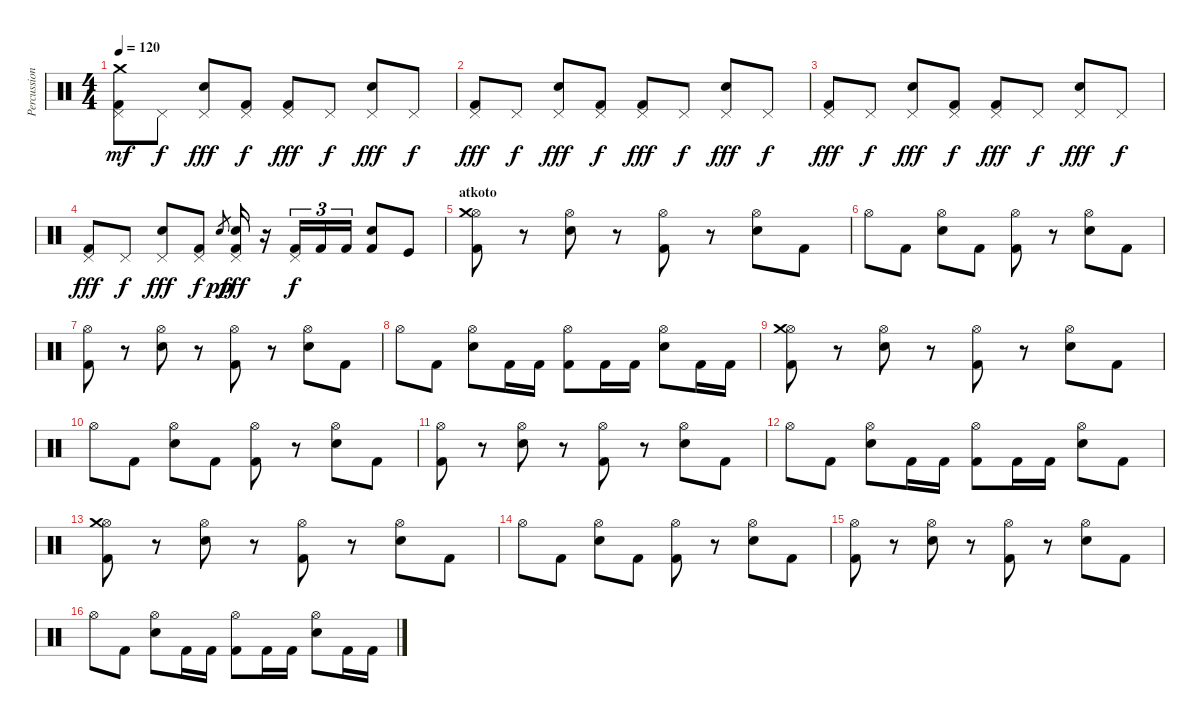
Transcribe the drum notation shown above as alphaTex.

\track ("Percussion" "Percussion") {instrument percussion}
\staff {score}
\articulation defaults
\ts (4 4)
\tempo 120
\clef neutral
\ks c
("Pedal Hi-Hat (hit)" "Kick (hit) 2" "Crash medium (hit)").8{dy mf} "Pedal Hi-Hat (hit)".8{dy f} ("Pedal Hi-Hat (hit)" "Snare (hit) 2").8{dy fff} ("Pedal Hi-Hat (hit)" "Kick (hit) 2").8{dy f} ("Pedal Hi-Hat (hit)" "Kick (hit) 2").8{dy fff} "Pedal Hi-Hat (hit)".8{dy f} ("Pedal Hi-Hat (hit)" "Snare (hit) 2").8{dy fff} "Pedal Hi-Hat (hit)".8{dy f} |
("Pedal Hi-Hat (hit)" "Kick (hit) 2").8{dy fff} "Pedal Hi-Hat (hit)".8{dy f} ("Pedal Hi-Hat (hit)" "Snare (hit) 2").8{dy fff} ("Pedal Hi-Hat (hit)" "Kick (hit) 2").8{dy f} ("Pedal Hi-Hat (hit)" "Kick (hit) 2").8{dy fff} "Pedal Hi-Hat (hit)".8{dy f} ("Pedal Hi-Hat (hit)" "Snare (hit) 2").8{dy fff} "Pedal Hi-Hat (hit)".8{dy f} |
("Pedal Hi-Hat (hit)" "Kick (hit) 2").8{dy fff} "Pedal Hi-Hat (hit)".8{dy f} ("Pedal Hi-Hat (hit)" "Snare (hit) 2").8{dy fff} ("Pedal Hi-Hat (hit)" "Kick (hit) 2").8{dy f} ("Pedal Hi-Hat (hit)" "Kick (hit) 2").8{dy fff} "Pedal Hi-Hat (hit)".8{dy f} ("Pedal Hi-Hat (hit)" "Snare (hit) 2").8{dy fff} "Pedal Hi-Hat (hit)".8{dy f} |
("Pedal Hi-Hat (hit)" "Kick (hit) 2").8{dy fff} "Pedal Hi-Hat (hit)".8{dy f} ("Pedal Hi-Hat (hit)" "Snare (hit) 2").8{dy fff} ("Pedal Hi-Hat (hit)" "Kick (hit) 2").8{dy f} "Snare (hit) 2".8{gr dy pp} ("Pedal Hi-Hat (hit)" "Kick (hit) 2" "Snare (hit) 2").16{dy fff} r.16 ("Pedal Hi-Hat (hit)" "Kick (hit) 2").16{tu (3 2) dy f} "Kick (hit) 2".16{tu (3 2)} "Kick (hit) 2".16{tu (3 2)} ("Kick (hit) 2" "Snare (hit) 2").8 "Kick (hit)".8 |
\section ("" "atkoto")
("Hi-Hat (open)" "Kick (hit) 2" "Crash medium (hit)").8 r.8 ("Hi-Hat (open)" "Snare (hit) 2").8 r.8 ("Hi-Hat (open)" "Kick (hit) 2").8 r.8 ("Hi-Hat (open)" "Snare (hit) 2").8 "Kick (hit) 2".8 |
"Hi-Hat (open)".8 "Kick (hit) 2".8 ("Hi-Hat (open)" "Snare (hit) 2").8 "Kick (hit) 2".8 ("Hi-Hat (open)" "Kick (hit) 2").8 r.8 ("Hi-Hat (open)" "Snare (hit) 2").8 "Kick (hit) 2".8 |
("Hi-Hat (open)" "Kick (hit) 2").8 r.8 ("Hi-Hat (open)" "Snare (hit) 2").8 r.8 ("Hi-Hat (open)" "Kick (hit) 2").8 r.8 ("Hi-Hat (open)" "Snare (hit) 2").8 "Kick (hit) 2".8 |
"Hi-Hat (open)".8 "Kick (hit) 2".8 ("Hi-Hat (open)" "Snare (hit) 2").8 "Kick (hit) 2".16 "Kick (hit) 2".16 ("Hi-Hat (open)" "Kick (hit) 2").8 "Kick (hit) 2".16 "Kick (hit) 2".16 ("Hi-Hat (open)" "Snare (hit) 2").8 "Kick (hit) 2".16 "Kick (hit) 2".16 |
("Hi-Hat (open)" "Kick (hit) 2" "Crash medium (hit)").8 r.8 ("Hi-Hat (open)" "Snare (hit) 2").8 r.8 ("Hi-Hat (open)" "Kick (hit) 2").8 r.8 ("Hi-Hat (open)" "Snare (hit) 2").8 "Kick (hit) 2".8 |
"Hi-Hat (open)".8 "Kick (hit) 2".8 ("Hi-Hat (open)" "Snare (hit) 2").8 "Kick (hit) 2".8 ("Hi-Hat (open)" "Kick (hit) 2").8 r.8 ("Hi-Hat (open)" "Snare (hit) 2").8 "Kick (hit) 2".8 |
("Hi-Hat (open)" "Kick (hit) 2").8 r.8 ("Hi-Hat (open)" "Snare (hit) 2").8 r.8 ("Hi-Hat (open)" "Kick (hit) 2").8 r.8 ("Hi-Hat (open)" "Snare (hit) 2").8 "Kick (hit) 2".8 |
"Hi-Hat (open)".8 "Kick (hit) 2".8 ("Hi-Hat (open)" "Snare (hit) 2").8 "Kick (hit) 2".16 "Kick (hit) 2".16 ("Hi-Hat (open)" "Kick (hit) 2").8 "Kick (hit) 2".16 "Kick (hit) 2".16 ("Hi-Hat (open)" "Snare (hit) 2").8 "Kick (hit) 2".8 |
("Hi-Hat (open)" "Kick (hit) 2" "Crash medium (hit)").8 r.8 ("Hi-Hat (open)" "Snare (hit) 2").8 r.8 ("Hi-Hat (open)" "Kick (hit) 2").8 r.8 ("Hi-Hat (open)" "Snare (hit) 2").8 "Kick (hit) 2".8 |
"Hi-Hat (open)".8 "Kick (hit) 2".8 ("Hi-Hat (open)" "Snare (hit) 2").8 "Kick (hit) 2".8 ("Hi-Hat (open)" "Kick (hit) 2").8 r.8 ("Hi-Hat (open)" "Snare (hit) 2").8 "Kick (hit) 2".8 |
("Hi-Hat (open)" "Kick (hit) 2").8 r.8 ("Hi-Hat (open)" "Snare (hit) 2").8 r.8 ("Hi-Hat (open)" "Kick (hit) 2").8 r.8 ("Hi-Hat (open)" "Snare (hit) 2").8 "Kick (hit) 2".8 |
"Hi-Hat (open)".8 "Kick (hit) 2".8 ("Hi-Hat (open)" "Snare (hit) 2").8 "Kick (hit) 2".16 "Kick (hit) 2".16 ("Hi-Hat (open)" "Kick (hit) 2").8 "Kick (hit) 2".16 "Kick (hit) 2".16 ("Hi-Hat (open)" "Snare (hit) 2").8 "Kick (hit) 2".16 "Kick (hit) 2".16
